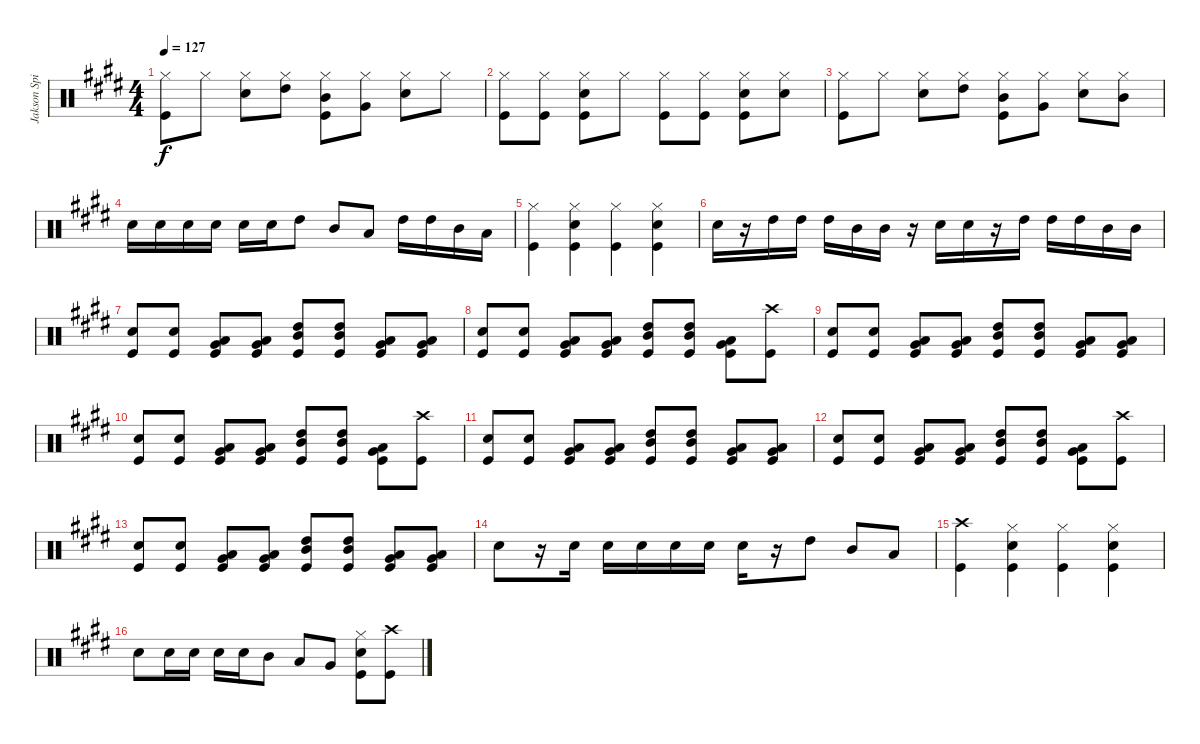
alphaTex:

\track ("Jakson Spiers Drums" "Jakson Spi") {instrument percussion}
\staff {score}
\articulation defaults
\ts (4 4)
\tempo 127
\clef neutral
\ks e
("Hi-Hat (closed)" "Kick (hit)").8{dy f} "Hi-Hat (closed)".8 ("Hi-Hat (closed)" "Snare (hit) 2").8 ("Hi-Hat (closed)" "High Tom (hit)").8 ("Hi-Hat (closed)" "Mid Tom (hit)" "Kick (hit)").8 ("Hi-Hat (closed)" "Very Low Tom (hit)").8 ("Hi-Hat (closed)" "Snare (hit) 2").8 "Hi-Hat (closed)".8 |
("Hi-Hat (closed)" "Kick (hit)").8 ("Hi-Hat (closed)" "Kick (hit)").8 ("Hi-Hat (closed)" "Snare (hit) 2" "Kick (hit)").8 "Hi-Hat (closed)".8 ("Hi-Hat (closed)" "Kick (hit)").8 ("Hi-Hat (closed)" "Kick (hit)").8 ("Hi-Hat (closed)" "Snare (hit) 2" "Kick (hit)").8 ("Hi-Hat (closed)" "Snare (hit) 2").8 |
("Hi-Hat (closed)" "Kick (hit)").8 "Hi-Hat (closed)".8 ("Hi-Hat (closed)" "Snare (hit) 2").8 ("Hi-Hat (closed)" "High Tom (hit)").8 ("Hi-Hat (closed)" "Mid Tom (hit)" "Kick (hit)").8 ("Hi-Hat (closed)" "Very Low Tom (hit)").8 ("Hi-Hat (closed)" "Snare (hit) 2").8 ("Hi-Hat (closed)" "Mid Tom (hit)").8 |
"Snare (hit) 2".16 "Snare (hit) 2".16 "Snare (hit) 2".16 "Snare (hit) 2".16 "Snare (hit) 2".16 "Snare (hit) 2".16 "High Tom (hit)".8 "Mid Tom (hit)".8 "Low Tom (hit)".8 "High Tom (hit)".16 "High Tom (hit)".16 "Mid Tom (hit)".16 "Low Tom (hit)".16 |
("Hi-Hat (closed)" "Kick (hit)").4 ("Hi-Hat (closed)" "Snare (hit) 2" "Kick (hit)").4 ("Hi-Hat (closed)" "Kick (hit)").4 ("Hi-Hat (closed)" "Snare (hit) 2" "Kick (hit)").4 |
"Snare (hit) 2".16 r.16 "High Tom (hit)".16 "High Tom (hit)".16 "High Tom (hit)".16 "Mid Tom (hit)".16 "Mid Tom (hit)".16 r.16 "Snare (hit) 2".16 "Snare (hit) 2".16 r.16 "High Tom (hit)".16 "High Tom (hit)".16 "High Tom (hit)".16 "Mid Tom (hit)".16 "Mid Tom (hit)".16 |
("Snare (hit) 2" "Kick (hit)").8 ("Snare (hit) 2" "Kick (hit)").8 ("Very Low Tom (hit)" "Low Floor Tom (hit)" "Kick (hit)").8 ("Very Low Tom (hit)" "Low Floor Tom (hit)" "Kick (hit)").8 ("High Tom (hit)" "Mid Tom (hit)" "Kick (hit)").8 ("High Tom (hit)" "Mid Tom (hit)" "Kick (hit)").8 ("Very Low Tom (hit)" "Low Floor Tom (hit)" "Kick (hit)").8 ("Very Low Tom (hit)" "Low Floor Tom (hit)" "Kick (hit)").8 |
("Snare (hit) 2" "Kick (hit)").8 ("Snare (hit) 2" "Kick (hit)").8 ("Very Low Tom (hit)" "Low Floor Tom (hit)" "Kick (hit)").8 ("Very Low Tom (hit)" "Low Floor Tom (hit)" "Kick (hit)").8 ("High Tom (hit)" "Mid Tom (hit)" "Kick (hit)").8 ("High Tom (hit)" "Mid Tom (hit)" "Kick (hit)").8 ("Very Low Tom (hit)" "Low Floor Tom (hit)" "Kick (hit)").8 ("Crash high (hit)" "Kick (hit)").8 |
("Snare (hit) 2" "Kick (hit)").8 ("Snare (hit) 2" "Kick (hit)").8 ("Very Low Tom (hit)" "Low Floor Tom (hit)" "Kick (hit)").8 ("Very Low Tom (hit)" "Low Floor Tom (hit)" "Kick (hit)").8 ("High Tom (hit)" "Mid Tom (hit)" "Kick (hit)").8 ("High Tom (hit)" "Mid Tom (hit)" "Kick (hit)").8 ("Very Low Tom (hit)" "Low Floor Tom (hit)" "Kick (hit)").8 ("Very Low Tom (hit)" "Low Floor Tom (hit)" "Kick (hit)").8 |
("Snare (hit) 2" "Kick (hit)").8 ("Snare (hit) 2" "Kick (hit)").8 ("Very Low Tom (hit)" "Low Floor Tom (hit)" "Kick (hit)").8 ("Very Low Tom (hit)" "Low Floor Tom (hit)" "Kick (hit)").8 ("High Tom (hit)" "Mid Tom (hit)" "Kick (hit)").8 ("High Tom (hit)" "Mid Tom (hit)" "Kick (hit)").8 ("Very Low Tom (hit)" "Low Floor Tom (hit)" "Kick (hit)").8 ("Crash high (hit)" "Kick (hit)").8 |
("Snare (hit) 2" "Kick (hit)").8 ("Snare (hit) 2" "Kick (hit)").8 ("Very Low Tom (hit)" "Low Floor Tom (hit)" "Kick (hit)").8 ("Very Low Tom (hit)" "Low Floor Tom (hit)" "Kick (hit)").8 ("High Tom (hit)" "Mid Tom (hit)" "Kick (hit)").8 ("High Tom (hit)" "Mid Tom (hit)" "Kick (hit)").8 ("Very Low Tom (hit)" "Low Floor Tom (hit)" "Kick (hit)").8 ("Very Low Tom (hit)" "Low Floor Tom (hit)" "Kick (hit)").8 |
("Snare (hit) 2" "Kick (hit)").8 ("Snare (hit) 2" "Kick (hit)").8 ("Very Low Tom (hit)" "Low Floor Tom (hit)" "Kick (hit)").8 ("Very Low Tom (hit)" "Low Floor Tom (hit)" "Kick (hit)").8 ("High Tom (hit)" "Mid Tom (hit)" "Kick (hit)").8 ("High Tom (hit)" "Mid Tom (hit)" "Kick (hit)").8 ("Very Low Tom (hit)" "Low Floor Tom (hit)" "Kick (hit)").8 ("Crash high (hit)" "Kick (hit)").8 |
("Snare (hit) 2" "Kick (hit)").8 ("Snare (hit) 2" "Kick (hit)").8 ("Very Low Tom (hit)" "Low Floor Tom (hit)" "Kick (hit)").8 ("Very Low Tom (hit)" "Low Floor Tom (hit)" "Kick (hit)").8 ("High Tom (hit)" "Mid Tom (hit)" "Kick (hit)").8 ("High Tom (hit)" "Mid Tom (hit)" "Kick (hit)").8 ("Very Low Tom (hit)" "Low Floor Tom (hit)" "Kick (hit)").8 ("Very Low Tom (hit)" "Low Floor Tom (hit)" "Kick (hit)").8 |
"Snare (hit) 2".8 r.16 "Snare (hit) 2".16 "Snare (hit) 2".16 "Snare (hit) 2".16 "Snare (hit) 2".16 "Snare (hit) 2".16 "Snare (hit) 2".16 r.16 "High Tom (hit)".8 "Mid Tom (hit)".8 "Low Tom (hit)".8 |
("Crash high (hit)" "Kick (hit)").4 ("Hi-Hat (closed)" "Snare (hit) 2" "Kick (hit)").4 ("Hi-Hat (closed)" "Kick (hit)").4 ("Hi-Hat (closed)" "Snare (hit) 2" "Kick (hit)").4 |
"Snare (hit) 2".8 "Snare (hit) 2".16 "Snare (hit) 2".16 "Snare (hit) 2".16 "Snare (hit) 2".16 "Mid Tom (hit)".8 "Low Tom (hit)".8 "Very Low Tom (hit)".8 ("Hi-Hat (closed)" "Snare (hit) 2" "Kick (hit)").8 ("Crash high (hit)" "Kick (hit)").8
